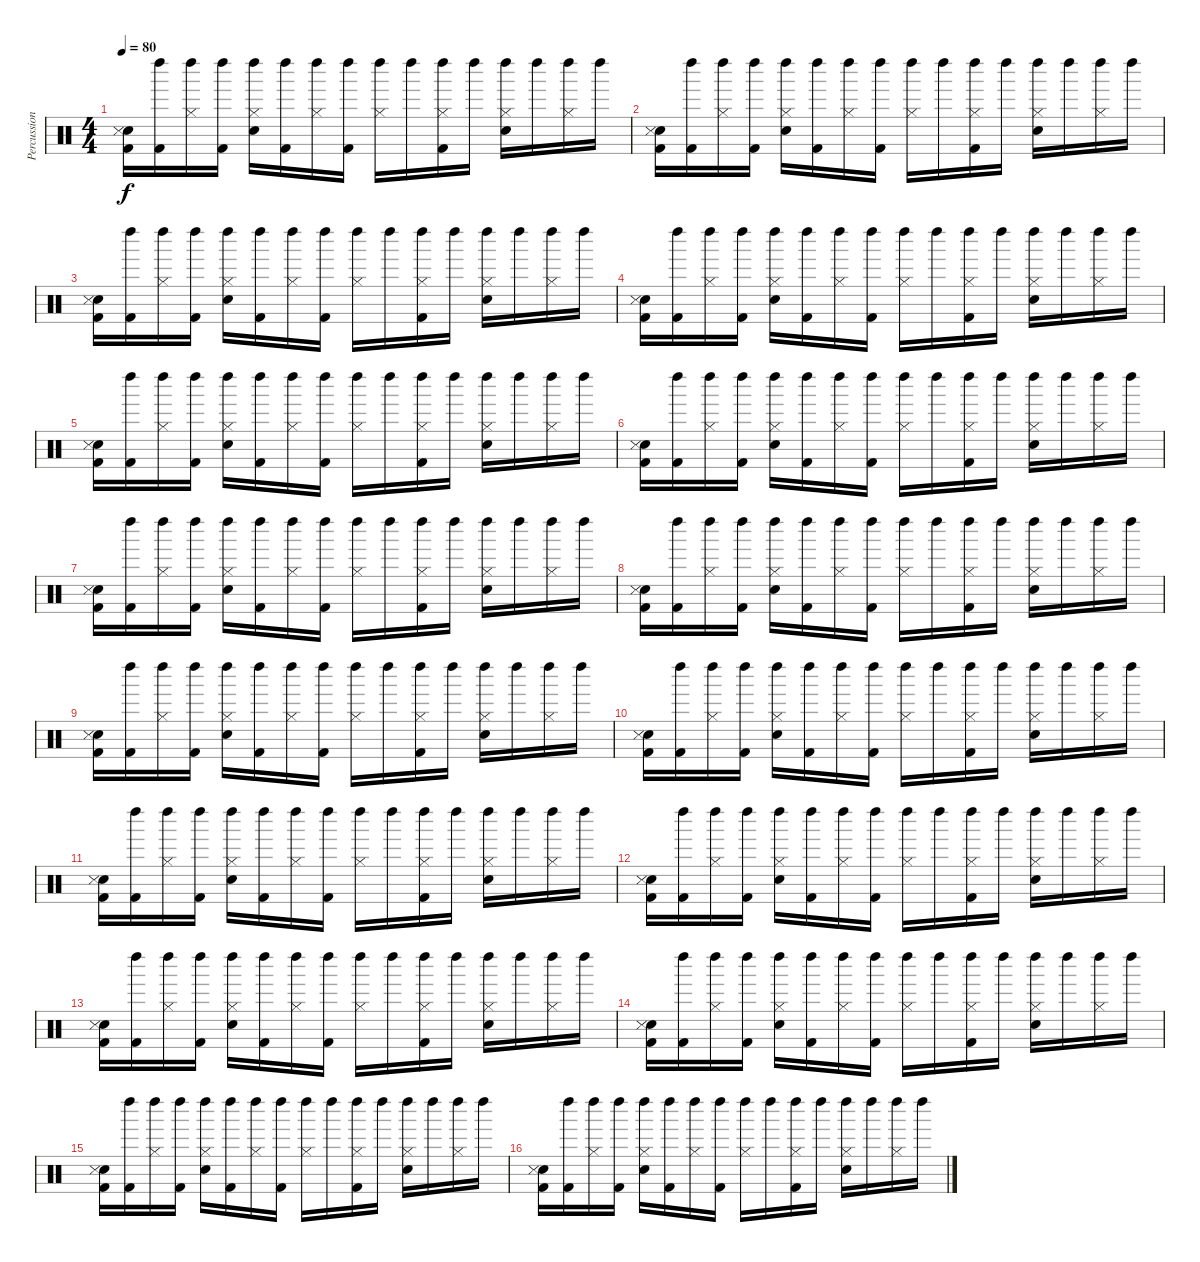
\track ("Percussions" "Percussion") {instrument percussion}
\staff {score}
\articulation defaults
\ts (4 4)
\tempo 80
\clef neutral
\ks c
("Electric Snare (hit)" "Snare (side stick) 3" "Kick (hit) 2").16{dy f} ("Kick (hit) 2" "Left Maraca (hit)").16 ("Hi-Hat (closed)" "Left Maraca (hit)").16 ("Kick (hit) 2" "Left Maraca (hit)").16 ("Hi-Hat (closed)" "Electric Snare (hit)" "Left Maraca (hit)").16 ("Kick (hit) 2" "Left Maraca (hit)").16 ("Hi-Hat (closed)" "Left Maraca (hit)").16 ("Kick (hit) 2" "Left Maraca (hit)").16 ("Hi-Hat (closed)" "Left Maraca (hit)").16 "Left Maraca (hit)".16 ("Hi-Hat (closed)" "Kick (hit) 2" "Left Maraca (hit)").16 "Left Maraca (hit)".16 ("Hi-Hat (closed)" "Electric Snare (hit)" "Left Maraca (hit)").16 "Left Maraca (hit)".16 ("Hi-Hat (closed)" "Left Maraca (hit)").16 "Left Maraca (hit)".16 |
("Electric Snare (hit)" "Snare (side stick) 3" "Kick (hit) 2").16 ("Kick (hit) 2" "Left Maraca (hit)").16 ("Hi-Hat (closed)" "Left Maraca (hit)").16 ("Kick (hit) 2" "Left Maraca (hit)").16 ("Hi-Hat (closed)" "Electric Snare (hit)" "Left Maraca (hit)").16 ("Kick (hit) 2" "Left Maraca (hit)").16 ("Hi-Hat (closed)" "Left Maraca (hit)").16 ("Kick (hit) 2" "Left Maraca (hit)").16 ("Hi-Hat (closed)" "Left Maraca (hit)").16 "Left Maraca (hit)".16 ("Hi-Hat (closed)" "Kick (hit) 2" "Left Maraca (hit)").16 "Left Maraca (hit)".16 ("Hi-Hat (closed)" "Electric Snare (hit)" "Left Maraca (hit)").16 "Left Maraca (hit)".16 ("Hi-Hat (closed)" "Left Maraca (hit)").16 "Left Maraca (hit)".16 |
("Electric Snare (hit)" "Snare (side stick) 3" "Kick (hit) 2").16 ("Kick (hit) 2" "Left Maraca (hit)").16 ("Hi-Hat (closed)" "Left Maraca (hit)").16 ("Kick (hit) 2" "Left Maraca (hit)").16 ("Hi-Hat (closed)" "Electric Snare (hit)" "Left Maraca (hit)").16 ("Kick (hit) 2" "Left Maraca (hit)").16 ("Hi-Hat (closed)" "Left Maraca (hit)").16 ("Kick (hit) 2" "Left Maraca (hit)").16 ("Hi-Hat (closed)" "Left Maraca (hit)").16 "Left Maraca (hit)".16 ("Hi-Hat (closed)" "Kick (hit) 2" "Left Maraca (hit)").16 "Left Maraca (hit)".16 ("Hi-Hat (closed)" "Electric Snare (hit)" "Left Maraca (hit)").16 "Left Maraca (hit)".16 ("Hi-Hat (closed)" "Left Maraca (hit)").16 "Left Maraca (hit)".16 |
("Electric Snare (hit)" "Snare (side stick) 3" "Kick (hit) 2").16 ("Kick (hit) 2" "Left Maraca (hit)").16 ("Hi-Hat (closed)" "Left Maraca (hit)").16 ("Kick (hit) 2" "Left Maraca (hit)").16 ("Hi-Hat (closed)" "Electric Snare (hit)" "Left Maraca (hit)").16 ("Kick (hit) 2" "Left Maraca (hit)").16 ("Hi-Hat (closed)" "Left Maraca (hit)").16 ("Kick (hit) 2" "Left Maraca (hit)").16 ("Hi-Hat (closed)" "Left Maraca (hit)").16 "Left Maraca (hit)".16 ("Hi-Hat (closed)" "Kick (hit) 2" "Left Maraca (hit)").16 "Left Maraca (hit)".16 ("Hi-Hat (closed)" "Electric Snare (hit)" "Left Maraca (hit)").16 "Left Maraca (hit)".16 ("Hi-Hat (closed)" "Left Maraca (hit)").16 "Left Maraca (hit)".16 |
("Electric Snare (hit)" "Snare (side stick) 3" "Kick (hit) 2").16 ("Kick (hit) 2" "Left Maraca (hit)").16 ("Hi-Hat (closed)" "Left Maraca (hit)").16 ("Kick (hit) 2" "Left Maraca (hit)").16 ("Hi-Hat (closed)" "Electric Snare (hit)" "Left Maraca (hit)").16 ("Kick (hit) 2" "Left Maraca (hit)").16 ("Hi-Hat (closed)" "Left Maraca (hit)").16 ("Kick (hit) 2" "Left Maraca (hit)").16 ("Hi-Hat (closed)" "Left Maraca (hit)").16 "Left Maraca (hit)".16 ("Hi-Hat (closed)" "Kick (hit) 2" "Left Maraca (hit)").16 "Left Maraca (hit)".16 ("Hi-Hat (closed)" "Electric Snare (hit)" "Left Maraca (hit)").16 "Left Maraca (hit)".16 ("Hi-Hat (closed)" "Left Maraca (hit)").16 "Left Maraca (hit)".16 |
("Electric Snare (hit)" "Snare (side stick) 3" "Kick (hit) 2").16 ("Kick (hit) 2" "Left Maraca (hit)").16 ("Hi-Hat (closed)" "Left Maraca (hit)").16 ("Kick (hit) 2" "Left Maraca (hit)").16 ("Hi-Hat (closed)" "Electric Snare (hit)" "Left Maraca (hit)").16 ("Kick (hit) 2" "Left Maraca (hit)").16 ("Hi-Hat (closed)" "Left Maraca (hit)").16 ("Kick (hit) 2" "Left Maraca (hit)").16 ("Hi-Hat (closed)" "Left Maraca (hit)").16 "Left Maraca (hit)".16 ("Hi-Hat (closed)" "Kick (hit) 2" "Left Maraca (hit)").16 "Left Maraca (hit)".16 ("Hi-Hat (closed)" "Electric Snare (hit)" "Left Maraca (hit)").16 "Left Maraca (hit)".16 ("Hi-Hat (closed)" "Left Maraca (hit)").16 "Left Maraca (hit)".16 |
("Electric Snare (hit)" "Snare (side stick) 3" "Kick (hit) 2").16 ("Kick (hit) 2" "Left Maraca (hit)").16 ("Hi-Hat (closed)" "Left Maraca (hit)").16 ("Kick (hit) 2" "Left Maraca (hit)").16 ("Hi-Hat (closed)" "Electric Snare (hit)" "Left Maraca (hit)").16 ("Kick (hit) 2" "Left Maraca (hit)").16 ("Hi-Hat (closed)" "Left Maraca (hit)").16 ("Kick (hit) 2" "Left Maraca (hit)").16 ("Hi-Hat (closed)" "Left Maraca (hit)").16 "Left Maraca (hit)".16 ("Hi-Hat (closed)" "Kick (hit) 2" "Left Maraca (hit)").16 "Left Maraca (hit)".16 ("Hi-Hat (closed)" "Electric Snare (hit)" "Left Maraca (hit)").16 "Left Maraca (hit)".16 ("Hi-Hat (closed)" "Left Maraca (hit)").16 "Left Maraca (hit)".16 |
("Electric Snare (hit)" "Snare (side stick) 3" "Kick (hit) 2").16 ("Kick (hit) 2" "Left Maraca (hit)").16 ("Hi-Hat (closed)" "Left Maraca (hit)").16 ("Kick (hit) 2" "Left Maraca (hit)").16 ("Hi-Hat (closed)" "Electric Snare (hit)" "Left Maraca (hit)").16 ("Kick (hit) 2" "Left Maraca (hit)").16 ("Hi-Hat (closed)" "Left Maraca (hit)").16 ("Kick (hit) 2" "Left Maraca (hit)").16 ("Hi-Hat (closed)" "Left Maraca (hit)").16 "Left Maraca (hit)".16 ("Hi-Hat (closed)" "Kick (hit) 2" "Left Maraca (hit)").16 "Left Maraca (hit)".16 ("Hi-Hat (closed)" "Electric Snare (hit)" "Left Maraca (hit)").16 "Left Maraca (hit)".16 ("Hi-Hat (closed)" "Left Maraca (hit)").16 "Left Maraca (hit)".16 |
("Electric Snare (hit)" "Snare (side stick) 3" "Kick (hit) 2").16 ("Kick (hit) 2" "Left Maraca (hit)").16 ("Hi-Hat (closed)" "Left Maraca (hit)").16 ("Kick (hit) 2" "Left Maraca (hit)").16 ("Hi-Hat (closed)" "Electric Snare (hit)" "Left Maraca (hit)").16 ("Kick (hit) 2" "Left Maraca (hit)").16 ("Hi-Hat (closed)" "Left Maraca (hit)").16 ("Kick (hit) 2" "Left Maraca (hit)").16 ("Hi-Hat (closed)" "Left Maraca (hit)").16 "Left Maraca (hit)".16 ("Hi-Hat (closed)" "Kick (hit) 2" "Left Maraca (hit)").16 "Left Maraca (hit)".16 ("Hi-Hat (closed)" "Electric Snare (hit)" "Left Maraca (hit)").16 "Left Maraca (hit)".16 ("Hi-Hat (closed)" "Left Maraca (hit)").16 "Left Maraca (hit)".16 |
("Electric Snare (hit)" "Snare (side stick) 3" "Kick (hit) 2").16 ("Kick (hit) 2" "Left Maraca (hit)").16 ("Hi-Hat (closed)" "Left Maraca (hit)").16 ("Kick (hit) 2" "Left Maraca (hit)").16 ("Hi-Hat (closed)" "Electric Snare (hit)" "Left Maraca (hit)").16 ("Kick (hit) 2" "Left Maraca (hit)").16 ("Hi-Hat (closed)" "Left Maraca (hit)").16 ("Kick (hit) 2" "Left Maraca (hit)").16 ("Hi-Hat (closed)" "Left Maraca (hit)").16 "Left Maraca (hit)".16 ("Hi-Hat (closed)" "Kick (hit) 2" "Left Maraca (hit)").16 "Left Maraca (hit)".16 ("Hi-Hat (closed)" "Electric Snare (hit)" "Left Maraca (hit)").16 "Left Maraca (hit)".16 ("Hi-Hat (closed)" "Left Maraca (hit)").16 "Left Maraca (hit)".16 |
("Electric Snare (hit)" "Snare (side stick) 3" "Kick (hit) 2").16 ("Kick (hit) 2" "Left Maraca (hit)").16 ("Hi-Hat (closed)" "Left Maraca (hit)").16 ("Kick (hit) 2" "Left Maraca (hit)").16 ("Hi-Hat (closed)" "Electric Snare (hit)" "Left Maraca (hit)").16 ("Kick (hit) 2" "Left Maraca (hit)").16 ("Hi-Hat (closed)" "Left Maraca (hit)").16 ("Kick (hit) 2" "Left Maraca (hit)").16 ("Hi-Hat (closed)" "Left Maraca (hit)").16 "Left Maraca (hit)".16 ("Hi-Hat (closed)" "Kick (hit) 2" "Left Maraca (hit)").16 "Left Maraca (hit)".16 ("Hi-Hat (closed)" "Electric Snare (hit)" "Left Maraca (hit)").16 "Left Maraca (hit)".16 ("Hi-Hat (closed)" "Left Maraca (hit)").16 "Left Maraca (hit)".16 |
("Electric Snare (hit)" "Snare (side stick) 3" "Kick (hit) 2").16 ("Kick (hit) 2" "Left Maraca (hit)").16 ("Hi-Hat (closed)" "Left Maraca (hit)").16 ("Kick (hit) 2" "Left Maraca (hit)").16 ("Hi-Hat (closed)" "Electric Snare (hit)" "Left Maraca (hit)").16 ("Kick (hit) 2" "Left Maraca (hit)").16 ("Hi-Hat (closed)" "Left Maraca (hit)").16 ("Kick (hit) 2" "Left Maraca (hit)").16 ("Hi-Hat (closed)" "Left Maraca (hit)").16 "Left Maraca (hit)".16 ("Hi-Hat (closed)" "Kick (hit) 2" "Left Maraca (hit)").16 "Left Maraca (hit)".16 ("Hi-Hat (closed)" "Electric Snare (hit)" "Left Maraca (hit)").16 "Left Maraca (hit)".16 ("Hi-Hat (closed)" "Left Maraca (hit)").16 "Left Maraca (hit)".16 |
("Electric Snare (hit)" "Snare (side stick) 3" "Kick (hit) 2").16 ("Kick (hit) 2" "Left Maraca (hit)").16 ("Hi-Hat (closed)" "Left Maraca (hit)").16 ("Kick (hit) 2" "Left Maraca (hit)").16 ("Hi-Hat (closed)" "Electric Snare (hit)" "Left Maraca (hit)").16 ("Kick (hit) 2" "Left Maraca (hit)").16 ("Hi-Hat (closed)" "Left Maraca (hit)").16 ("Kick (hit) 2" "Left Maraca (hit)").16 ("Hi-Hat (closed)" "Left Maraca (hit)").16 "Left Maraca (hit)".16 ("Hi-Hat (closed)" "Kick (hit) 2" "Left Maraca (hit)").16 "Left Maraca (hit)".16 ("Hi-Hat (closed)" "Electric Snare (hit)" "Left Maraca (hit)").16 "Left Maraca (hit)".16 ("Hi-Hat (closed)" "Left Maraca (hit)").16 "Left Maraca (hit)".16 |
("Electric Snare (hit)" "Snare (side stick) 3" "Kick (hit) 2").16 ("Kick (hit) 2" "Left Maraca (hit)").16 ("Hi-Hat (closed)" "Left Maraca (hit)").16 ("Kick (hit) 2" "Left Maraca (hit)").16 ("Hi-Hat (closed)" "Electric Snare (hit)" "Left Maraca (hit)").16 ("Kick (hit) 2" "Left Maraca (hit)").16 ("Hi-Hat (closed)" "Left Maraca (hit)").16 ("Kick (hit) 2" "Left Maraca (hit)").16 ("Hi-Hat (closed)" "Left Maraca (hit)").16 "Left Maraca (hit)".16 ("Hi-Hat (closed)" "Kick (hit) 2" "Left Maraca (hit)").16 "Left Maraca (hit)".16 ("Hi-Hat (closed)" "Electric Snare (hit)" "Left Maraca (hit)").16 "Left Maraca (hit)".16 ("Hi-Hat (closed)" "Left Maraca (hit)").16 "Left Maraca (hit)".16 |
("Electric Snare (hit)" "Snare (side stick) 3" "Kick (hit) 2").16 ("Kick (hit) 2" "Left Maraca (hit)").16 ("Hi-Hat (closed)" "Left Maraca (hit)").16 ("Kick (hit) 2" "Left Maraca (hit)").16 ("Hi-Hat (closed)" "Electric Snare (hit)" "Left Maraca (hit)").16 ("Kick (hit) 2" "Left Maraca (hit)").16 ("Hi-Hat (closed)" "Left Maraca (hit)").16 ("Kick (hit) 2" "Left Maraca (hit)").16 ("Hi-Hat (closed)" "Left Maraca (hit)").16 "Left Maraca (hit)".16 ("Hi-Hat (closed)" "Kick (hit) 2" "Left Maraca (hit)").16 "Left Maraca (hit)".16 ("Hi-Hat (closed)" "Electric Snare (hit)" "Left Maraca (hit)").16 "Left Maraca (hit)".16 ("Hi-Hat (closed)" "Left Maraca (hit)").16 "Left Maraca (hit)".16 |
("Electric Snare (hit)" "Snare (side stick) 3" "Kick (hit) 2").16 ("Kick (hit) 2" "Left Maraca (hit)").16 ("Hi-Hat (closed)" "Left Maraca (hit)").16 ("Kick (hit) 2" "Left Maraca (hit)").16 ("Hi-Hat (closed)" "Electric Snare (hit)" "Left Maraca (hit)").16 ("Kick (hit) 2" "Left Maraca (hit)").16 ("Hi-Hat (closed)" "Left Maraca (hit)").16 ("Kick (hit) 2" "Left Maraca (hit)").16 ("Hi-Hat (closed)" "Left Maraca (hit)").16 "Left Maraca (hit)".16 ("Hi-Hat (closed)" "Kick (hit) 2" "Left Maraca (hit)").16 "Left Maraca (hit)".16 ("Hi-Hat (closed)" "Electric Snare (hit)" "Left Maraca (hit)").16 "Left Maraca (hit)".16 ("Hi-Hat (closed)" "Left Maraca (hit)").16 "Left Maraca (hit)".16
